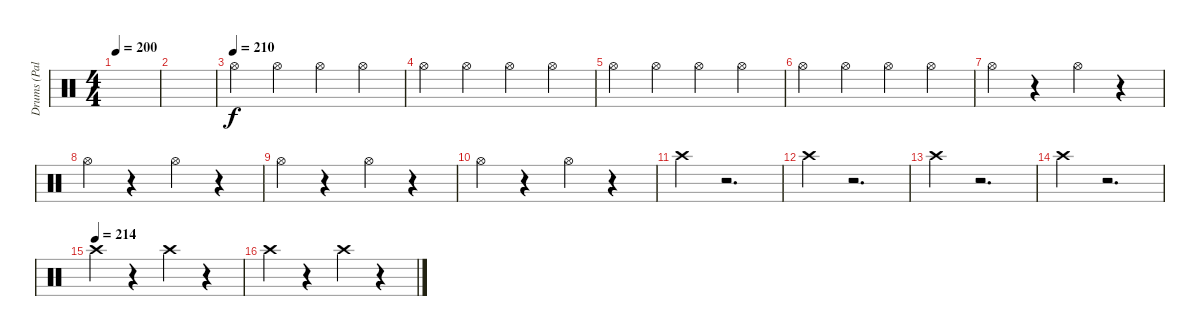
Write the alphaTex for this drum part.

\track ("Drums (Palmer)" "Drums (Pal") {instrument percussion}
\staff {score}
\articulation defaults
\ts (4 4)
\tempo 200
\clef neutral
\ks c
|
|
\tempo (210)
"Hi-Hat (open)".4 "Hi-Hat (open)".4 "Hi-Hat (open)".4 "Hi-Hat (open)".4 |
"Hi-Hat (open)".4 "Hi-Hat (open)".4 "Hi-Hat (open)".4 "Hi-Hat (open)".4 |
"Hi-Hat (open)".4 "Hi-Hat (open)".4 "Hi-Hat (open)".4 "Hi-Hat (open)".4 |
"Hi-Hat (open)".4 "Hi-Hat (open)".4 "Hi-Hat (open)".4 "Hi-Hat (open)".4 |
"Hi-Hat (open)".4 r.4 "Hi-Hat (open)".4 r.4 |
"Hi-Hat (open)".4 r.4 "Hi-Hat (open)".4 r.4 |
"Hi-Hat (open)".4 r.4 "Hi-Hat (open)".4 r.4 |
"Hi-Hat (open)".4 r.4 "Hi-Hat (open)".4 r.4 |
"Crash high (hit)".4 r.2{d} |
"Crash high (hit)".4 r.2{d} |
"Crash high (hit)".4 r.2{d} |
"Crash high (hit)".4 r.2{d} |
\tempo (214)
"Crash high (hit)".4 r.4 "Crash high (hit)".4 r.4 |
"Crash high (hit)".4 r.4 "Crash high (hit)".4 r.4
